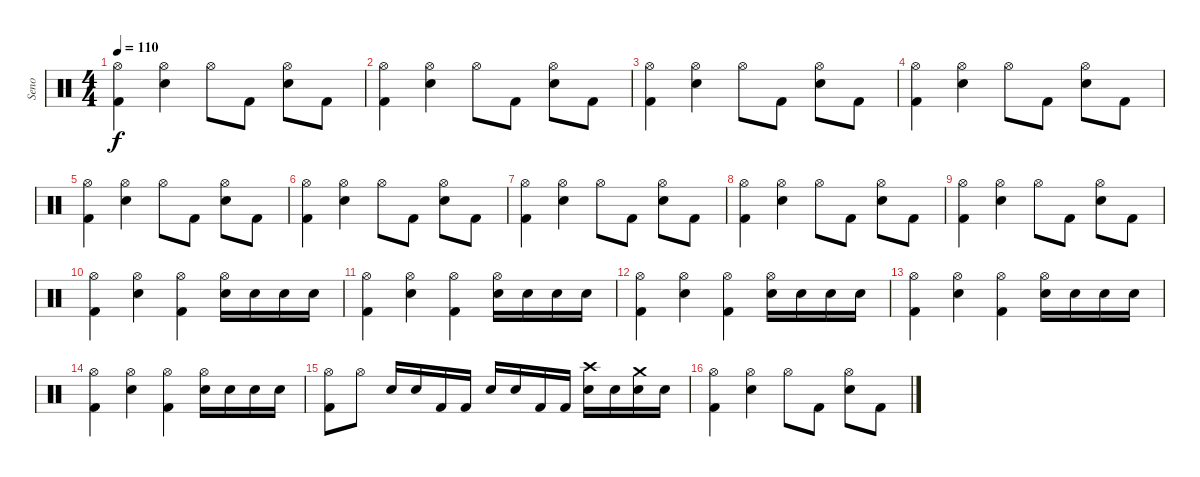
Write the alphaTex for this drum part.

\track ("Seno" "Seno") {instrument percussion}
\staff {score}
\articulation defaults
\ts (4 4)
\tempo 110
\clef neutral
\ks c
("Kick (hit) 2" "Hi-Hat (open)").4{dy f} ("Snare (hit) 2" "Hi-Hat (open)").4 "Hi-Hat (open)".8 "Kick (hit) 2".8 ("Hi-Hat (open)" "Snare (hit) 2").8 "Kick (hit) 2".8 |
("Kick (hit) 2" "Hi-Hat (open)").4 ("Snare (hit) 2" "Hi-Hat (open)").4 "Hi-Hat (open)".8 "Kick (hit) 2".8 ("Hi-Hat (open)" "Snare (hit) 2").8 "Kick (hit) 2".8 |
("Kick (hit) 2" "Hi-Hat (open)").4 ("Snare (hit) 2" "Hi-Hat (open)").4 "Hi-Hat (open)".8 "Kick (hit) 2".8 ("Hi-Hat (open)" "Snare (hit) 2").8 "Kick (hit) 2".8 |
("Kick (hit) 2" "Hi-Hat (open)").4 ("Snare (hit) 2" "Hi-Hat (open)").4 "Hi-Hat (open)".8 "Kick (hit) 2".8 ("Hi-Hat (open)" "Snare (hit) 2").8 "Kick (hit) 2".8 |
("Kick (hit) 2" "Hi-Hat (open)").4 ("Snare (hit) 2" "Hi-Hat (open)").4 "Hi-Hat (open)".8 "Kick (hit) 2".8 ("Hi-Hat (open)" "Snare (hit) 2").8 "Kick (hit) 2".8 |
("Kick (hit) 2" "Hi-Hat (open)").4 ("Snare (hit) 2" "Hi-Hat (open)").4 "Hi-Hat (open)".8 "Kick (hit) 2".8 ("Hi-Hat (open)" "Snare (hit) 2").8 "Kick (hit) 2".8 |
("Kick (hit) 2" "Hi-Hat (open)").4 ("Snare (hit) 2" "Hi-Hat (open)").4 "Hi-Hat (open)".8 "Kick (hit) 2".8 ("Hi-Hat (open)" "Snare (hit) 2").8 "Kick (hit) 2".8 |
("Kick (hit) 2" "Hi-Hat (open)").4 ("Snare (hit) 2" "Hi-Hat (open)").4 "Hi-Hat (open)".8 "Kick (hit) 2".8 ("Hi-Hat (open)" "Snare (hit) 2").8 "Kick (hit) 2".8 |
("Kick (hit) 2" "Hi-Hat (open)").4 ("Snare (hit) 2" "Hi-Hat (open)").4 "Hi-Hat (open)".8 "Kick (hit) 2".8 ("Hi-Hat (open)" "Snare (hit) 2").8 "Kick (hit) 2".8 |
("Kick (hit) 2" "Hi-Hat (open)").4 ("Snare (hit) 2" "Hi-Hat (open)").4 ("Kick (hit) 2" "Hi-Hat (open)").4 ("Hi-Hat (open)" "Snare (hit) 2").16 "Snare (hit) 2".16 "Snare (hit) 2".16 "Snare (hit) 2".16 |
("Kick (hit) 2" "Hi-Hat (open)").4 ("Snare (hit) 2" "Hi-Hat (open)").4 ("Kick (hit) 2" "Hi-Hat (open)").4 ("Hi-Hat (open)" "Snare (hit) 2").16 "Snare (hit) 2".16 "Snare (hit) 2".16 "Snare (hit) 2".16 |
("Kick (hit) 2" "Hi-Hat (open)").4 ("Snare (hit) 2" "Hi-Hat (open)").4 ("Kick (hit) 2" "Hi-Hat (open)").4 ("Hi-Hat (open)" "Snare (hit) 2").16 "Snare (hit) 2".16 "Snare (hit) 2".16 "Snare (hit) 2".16 |
("Kick (hit) 2" "Hi-Hat (open)").4 ("Snare (hit) 2" "Hi-Hat (open)").4 ("Kick (hit) 2" "Hi-Hat (open)").4 ("Hi-Hat (open)" "Snare (hit) 2").16 "Snare (hit) 2".16 "Snare (hit) 2".16 "Snare (hit) 2".16 |
("Kick (hit) 2" "Hi-Hat (open)").4 ("Snare (hit) 2" "Hi-Hat (open)").4 ("Kick (hit) 2" "Hi-Hat (open)").4 ("Hi-Hat (open)" "Snare (hit) 2").16 "Snare (hit) 2".16 "Snare (hit) 2".16 "Snare (hit) 2".16 |
("Hi-Hat (open)" "Kick (hit) 2").8 "Hi-Hat (open)".8 "Snare (hit) 2".16 "Snare (hit) 2".16 "Kick (hit) 2".16 "Kick (hit) 2".16 "Snare (hit) 2".16 "Snare (hit) 2".16 "Kick (hit) 2".16 "Kick (hit) 2".16 ("Snare (hit) 2" "Crash high (hit)").16 "Snare (hit) 2".16 ("Snare (hit) 2" "Crash medium (hit)").16 "Snare (hit) 2".16 |
("Kick (hit) 2" "Hi-Hat (open)").4 ("Snare (hit) 2" "Hi-Hat (open)").4 "Hi-Hat (open)".8 "Kick (hit) 2".8 ("Hi-Hat (open)" "Snare (hit) 2").8 "Kick (hit) 2".8
